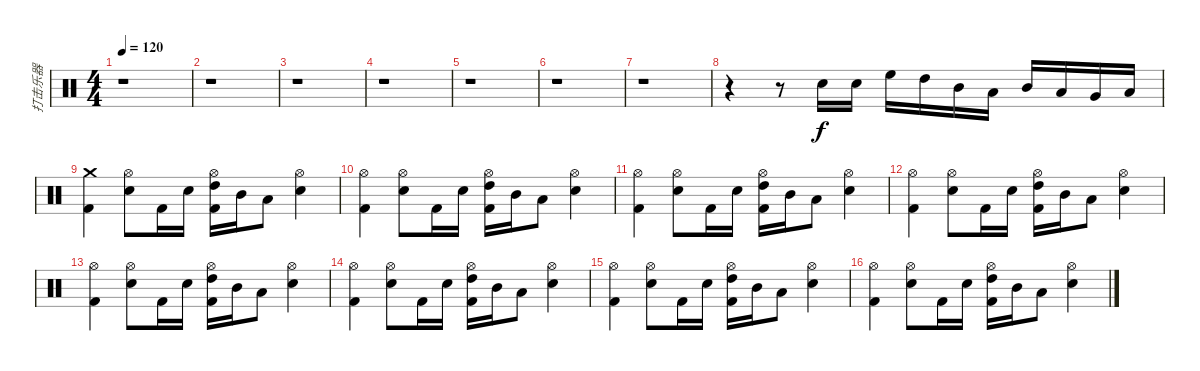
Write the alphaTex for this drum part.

\track ("打击乐器" "打击乐器") {instrument percussion}
\staff {score}
\articulation defaults
\ts (4 4)
\tempo 120
\clef neutral
\ks c
r.1{dy f} |
r.1 |
r.1 |
r.1 |
r.1 |
r.1 |
r.1 |
r.4 r.8 "Snare (hit) 2".16 "Snare (hit) 2".16 "High Floor Tom (hit)".16 "High Tom (hit)".16 "Mid Tom (hit)".16 "Low Tom (hit)".16 "Mid Tom (hit)".16 "Low Tom (hit)".16 "Very Low Tom (hit)".16 "Low Floor Tom (hit)".16 |
("Crash medium (hit)" "Kick (hit) 2").4 ("Hi-Hat (open)" "Snare (hit) 2").8 "Kick (hit) 2".16 "Snare (hit) 2".16 ("Hi-Hat (open)" "High Tom (hit)" "Kick (hit) 2").16 "Mid Tom (hit)".16 "Low Tom (hit)".8 ("Hi-Hat (open)" "Snare (hit) 2").4 |
("Hi-Hat (open)" "Kick (hit) 2").4 ("Hi-Hat (open)" "Snare (hit) 2").8 "Kick (hit) 2".16 "Snare (hit) 2".16 ("Hi-Hat (open)" "High Tom (hit)" "Kick (hit) 2").16 "Mid Tom (hit)".16 "Low Tom (hit)".8 ("Hi-Hat (open)" "Snare (hit) 2").4 |
("Hi-Hat (open)" "Kick (hit) 2").4 ("Hi-Hat (open)" "Snare (hit) 2").8 "Kick (hit) 2".16 "Snare (hit) 2".16 ("Hi-Hat (open)" "High Tom (hit)" "Kick (hit) 2").16 "Mid Tom (hit)".16 "Low Tom (hit)".8 ("Hi-Hat (open)" "Snare (hit) 2").4 |
("Hi-Hat (open)" "Kick (hit) 2").4 ("Hi-Hat (open)" "Snare (hit) 2").8 "Kick (hit) 2".16 "Snare (hit) 2".16 ("Hi-Hat (open)" "High Tom (hit)" "Kick (hit) 2").16 "Mid Tom (hit)".16 "Low Tom (hit)".8 ("Hi-Hat (open)" "Snare (hit) 2").4 |
("Hi-Hat (open)" "Kick (hit) 2").4 ("Hi-Hat (open)" "Snare (hit) 2").8 "Kick (hit) 2".16 "Snare (hit) 2".16 ("Hi-Hat (open)" "High Tom (hit)" "Kick (hit) 2").16 "Mid Tom (hit)".16 "Low Tom (hit)".8 ("Hi-Hat (open)" "Snare (hit) 2").4 |
("Hi-Hat (open)" "Kick (hit) 2").4 ("Hi-Hat (open)" "Snare (hit) 2").8 "Kick (hit) 2".16 "Snare (hit) 2".16 ("Hi-Hat (open)" "High Tom (hit)" "Kick (hit) 2").16 "Mid Tom (hit)".16 "Low Tom (hit)".8 ("Hi-Hat (open)" "Snare (hit) 2").4 |
("Hi-Hat (open)" "Kick (hit) 2").4 ("Hi-Hat (open)" "Snare (hit) 2").8 "Kick (hit) 2".16 "Snare (hit) 2".16 ("Hi-Hat (open)" "High Tom (hit)" "Kick (hit) 2").16 "Mid Tom (hit)".16 "Low Tom (hit)".8 ("Hi-Hat (open)" "Snare (hit) 2").4 |
("Hi-Hat (open)" "Kick (hit) 2").4 ("Hi-Hat (open)" "Snare (hit) 2").8 "Kick (hit) 2".16 "Snare (hit) 2".16 ("Hi-Hat (open)" "High Tom (hit)" "Kick (hit) 2").16 "Mid Tom (hit)".16 "Low Tom (hit)".8 ("Hi-Hat (open)" "Snare (hit) 2").4
